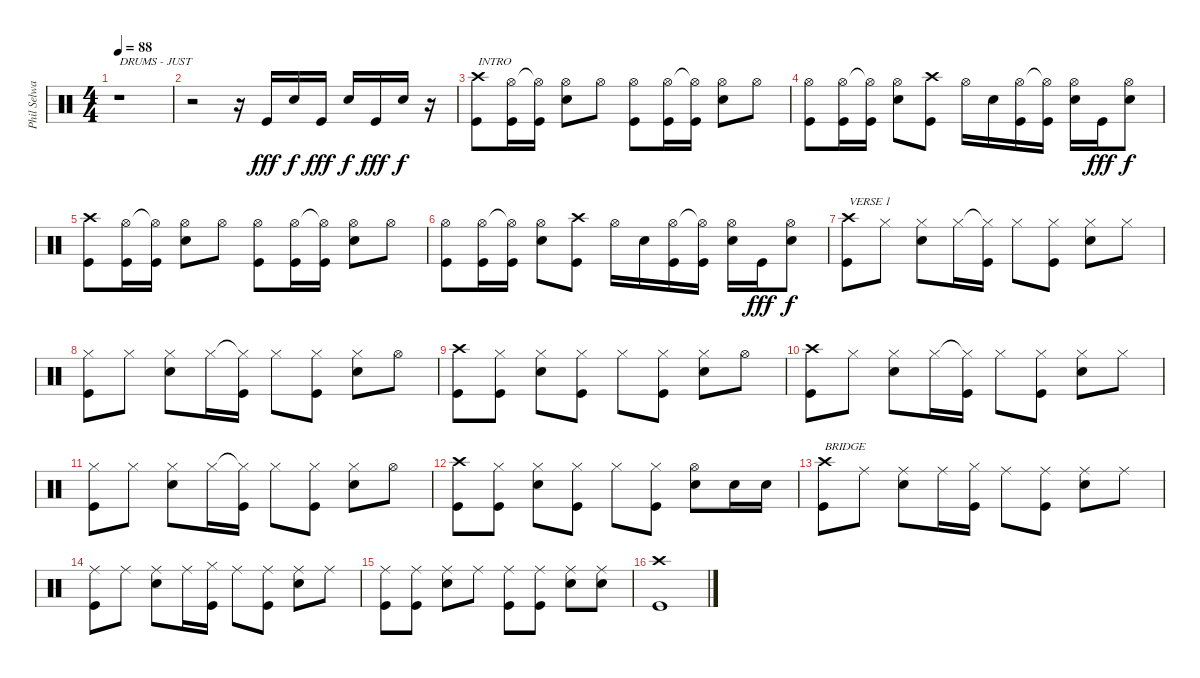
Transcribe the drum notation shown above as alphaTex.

\track ("Phil Selway" "Phil Selwa") {instrument percussion}
\staff {score}
\articulation defaults
\ts (4 4)
\tempo 88
\clef neutral
\ks c
r.1{txt "DRUMS - JUST" dy fff} |
r.2 r.16 "Kick (hit)".16 "Snare (hit) 2".16{dy f} "Kick (hit)".16{dy fff} "Snare (hit) 2".16{dy f} "Kick (hit)".16{dy fff} "Snare (hit) 2".16{dy f} r.16 |
("Crash high (hit)" "Kick (hit)").8{txt "INTRO"} ("Hi-Hat (open)" "Kick (hit)").16 ("Hi-Hat (open)"{t} "Kick (hit)").16 ("Hi-Hat (open)" "Snare (hit) 2").8 "Hi-Hat (open)".8 ("Hi-Hat (open)" "Kick (hit)").8 ("Hi-Hat (open)" "Kick (hit)").16 ("Hi-Hat (open)"{t} "Kick (hit)").16 ("Hi-Hat (open)" "Snare (hit) 2").8 "Hi-Hat (open)".8 |
("Hi-Hat (open)" "Kick (hit)").8 ("Hi-Hat (open)" "Kick (hit)").16 ("Hi-Hat (open)"{t} "Kick (hit)").16 ("Hi-Hat (open)" "Snare (hit) 2").8 ("Crash high (hit)" "Kick (hit)").8 "Hi-Hat (open)".16 "Snare (hit) 2".16 ("Hi-Hat (open)" "Kick (hit)").16 ("Hi-Hat (open)"{t} "Kick (hit)").16 ("Hi-Hat (open)" "Snare (hit) 2").16 "Kick (hit)".16{dy fff} ("Hi-Hat (open)" "Snare (hit) 2").8{dy f} |
("Crash high (hit)" "Kick (hit)").8 ("Hi-Hat (open)" "Kick (hit)").16 ("Hi-Hat (open)"{t} "Kick (hit)").16 ("Hi-Hat (open)" "Snare (hit) 2").8 "Hi-Hat (open)".8 ("Hi-Hat (open)" "Kick (hit)").8 ("Hi-Hat (open)" "Kick (hit)").16 ("Hi-Hat (open)"{t} "Kick (hit)").16 ("Hi-Hat (open)" "Snare (hit) 2").8 "Hi-Hat (open)".8 |
("Hi-Hat (open)" "Kick (hit)").8 ("Hi-Hat (open)" "Kick (hit)").16 ("Hi-Hat (open)"{t} "Kick (hit)").16 ("Hi-Hat (open)" "Snare (hit) 2").8 ("Crash high (hit)" "Kick (hit)").8 "Hi-Hat (open)".16 "Snare (hit) 2".16 ("Hi-Hat (open)" "Kick (hit)").16 ("Hi-Hat (open)"{t} "Kick (hit)").16 ("Hi-Hat (open)" "Snare (hit) 2").16 "Kick (hit)".16{dy fff} ("Hi-Hat (open)" "Snare (hit) 2").8{dy f} |
("Crash high (hit)" "Kick (hit)").8{txt "VERSE 1"} "Hi-Hat (closed)".8 ("Hi-Hat (closed)" "Snare (hit) 2").8 "Hi-Hat (closed)".16 ("Hi-Hat (closed)"{t} "Kick (hit)").16 "Hi-Hat (closed)".8 ("Hi-Hat (closed)" "Kick (hit)").8 ("Hi-Hat (closed)" "Snare (hit) 2").8 "Hi-Hat (closed)".8 |
("Hi-Hat (closed)" "Kick (hit)").8 "Hi-Hat (closed)".8 ("Hi-Hat (closed)" "Snare (hit) 2").8 "Hi-Hat (closed)".16 ("Hi-Hat (closed)"{t} "Kick (hit)").16 "Hi-Hat (closed)".8 ("Hi-Hat (closed)" "Kick (hit)").8 ("Hi-Hat (closed)" "Snare (hit) 2").8 "Hi-Hat (open)".8 |
("Crash high (hit)" "Kick (hit)").8 ("Hi-Hat (closed)" "Kick (hit)").8 ("Hi-Hat (closed)" "Snare (hit) 2").8 ("Hi-Hat (closed)" "Kick (hit)").8 "Hi-Hat (closed)".8 ("Hi-Hat (closed)" "Kick (hit)").8 ("Hi-Hat (closed)" "Snare (hit) 2").8 "Hi-Hat (open)".8 |
("Crash high (hit)" "Kick (hit)").8 "Hi-Hat (closed)".8 ("Hi-Hat (closed)" "Snare (hit) 2").8 "Hi-Hat (closed)".16 ("Hi-Hat (closed)"{t} "Kick (hit)").16 "Hi-Hat (closed)".8 ("Hi-Hat (closed)" "Kick (hit)").8 ("Hi-Hat (closed)" "Snare (hit) 2").8 "Hi-Hat (closed)".8 |
("Hi-Hat (closed)" "Kick (hit)").8 "Hi-Hat (closed)".8 ("Hi-Hat (closed)" "Snare (hit) 2").8 "Hi-Hat (closed)".16 ("Hi-Hat (closed)"{t} "Kick (hit)").16 "Hi-Hat (closed)".8 ("Hi-Hat (closed)" "Kick (hit)").8 ("Hi-Hat (closed)" "Snare (hit) 2").8 "Hi-Hat (open)".8 |
("Crash high (hit)" "Kick (hit)").8 ("Hi-Hat (closed)" "Kick (hit)").8 ("Hi-Hat (closed)" "Snare (hit) 2").8 ("Hi-Hat (closed)" "Kick (hit)").8 "Hi-Hat (closed)".8 ("Hi-Hat (closed)" "Kick (hit)").8 ("Hi-Hat (open)" "Snare (hit) 2").8 "Snare (hit) 2".16 "Snare (hit) 2".16 |
("Crash high (hit)" "Kick (hit)").8{txt "BRIDGE"} "Ride (middle)".8 ("Ride (middle)" "Snare (hit) 2").8 "Ride (middle)".16 ("Hi-Hat (closed)" "Kick (hit)").16 "Ride (middle)".8 ("Ride (middle)" "Kick (hit)").8 ("Ride (middle)" "Snare (hit) 2").8 "Ride (middle)".8 |
("Ride (middle)" "Kick (hit)").8 "Ride (middle)".8 ("Ride (middle)" "Snare (hit) 2").8 "Ride (middle)".16 ("Hi-Hat (closed)" "Kick (hit)").16 "Ride (middle)".8 ("Ride (middle)" "Kick (hit)").8 ("Ride (middle)" "Snare (hit) 2").8 "Ride (middle)".8 |
("Ride (middle)" "Kick (hit)").8 ("Ride (middle)" "Kick (hit)").8 ("Ride (middle)" "Snare (hit) 2").8 "Ride (middle)".8 ("Ride (middle)" "Kick (hit)").8 ("Ride (middle)" "Kick (hit)").8 ("Ride (middle)" "Snare (hit) 2").8 ("Ride (middle)" "Snare (hit) 2").8 |
("Crash high (hit)" "Kick (hit)").1
